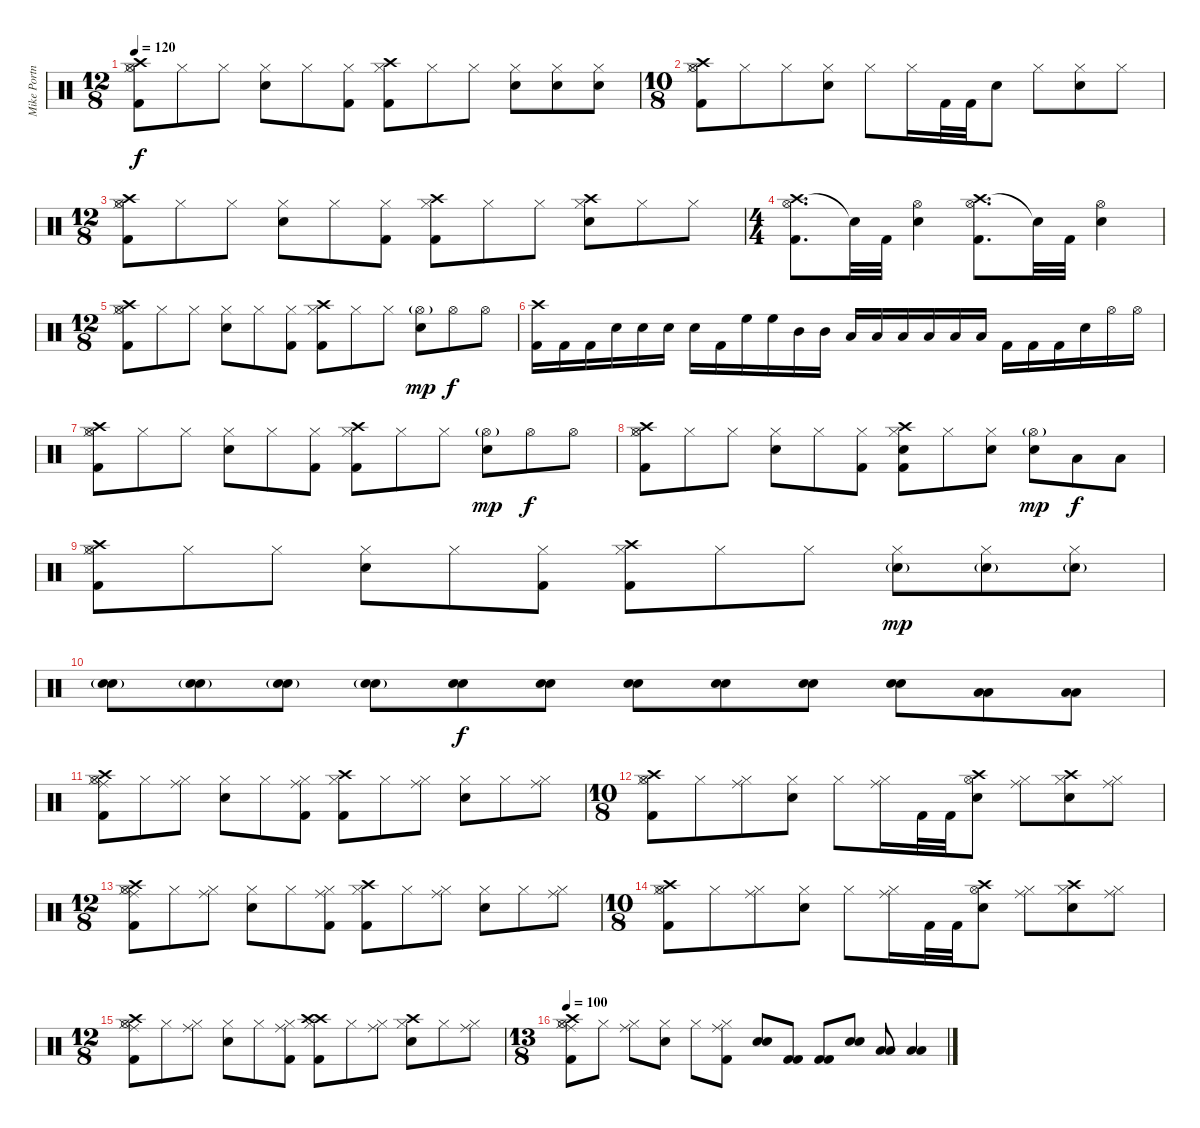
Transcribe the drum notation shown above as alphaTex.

\track ("Mike Portnoy Drums" "Mike Portn") {instrument percussion}
\staff {score}
\articulation defaults
\ts (12 8)
\tempo 120
\clef neutral
\ks c
("Hi-Hat (open)" "Kick (hit) 2" "Crash high (hit)" "Hi-Hat (closed)").8{dy f} "Hi-Hat (closed)".8 "Hi-Hat (closed)".8 ("Snare (hit) 2" "Hi-Hat (closed)").8 "Hi-Hat (closed)".8 ("Kick (hit) 2" "Hi-Hat (closed)").8 ("Kick (hit) 2" "Crash high (hit)" "Hi-Hat (closed)").8 "Hi-Hat (closed)".8 "Hi-Hat (closed)".8 ("Snare (hit) 2" "Hi-Hat (closed)").8 ("Snare (hit) 2" "Hi-Hat (closed)").8 ("Snare (hit) 2" "Hi-Hat (closed)").8 |
\ts (10 8)
("Crash high (hit)" "Hi-Hat (open)" "Kick (hit) 2" "Hi-Hat (closed)").8 "Hi-Hat (closed)".8 "Hi-Hat (closed)".8 ("Snare (hit) 2" "Hi-Hat (closed)").8 "Hi-Hat (closed)".8 "Hi-Hat (closed)".16 "Kick (hit) 2".32 "Kick (hit) 2".32 "Snare (hit) 2".8 "Hi-Hat (closed)".8 ("Snare (hit) 2" "Hi-Hat (closed)").8 "Hi-Hat (closed)".8 |
\ts (12 8)
("Hi-Hat (open)" "Kick (hit) 2" "Crash high (hit)" "Hi-Hat (closed)").8 "Hi-Hat (closed)".8 "Hi-Hat (closed)".8 ("Snare (hit) 2" "Hi-Hat (closed)").8 "Hi-Hat (closed)".8 ("Kick (hit) 2" "Hi-Hat (closed)").8 ("Kick (hit) 2" "Crash high (hit)" "Hi-Hat (closed)").8 "Hi-Hat (closed)".8 "Hi-Hat (closed)".8 ("Snare (hit) 2" "Crash high (hit)" "Hi-Hat (closed)").8 "Hi-Hat (closed)".8 "Hi-Hat (closed)".8 |
\ts (4 4)
("Crash high (hit)" "Hi-Hat (open)" "Kick (hit) 2").8{d} "Snare (hit)"{t}.32 "Kick (hit) 2".32 ("Hi-Hat (open)" "Snare (hit) 2").4 ("Crash high (hit)" "Hi-Hat (open)" "Kick (hit) 2").8{d} "Snare (hit)"{t}.32 "Kick (hit) 2".32 ("Hi-Hat (open)" "Snare (hit) 2").4 |
\ts (12 8)
("Hi-Hat (open)" "Kick (hit) 2" "Crash high (hit)" "Hi-Hat (closed)").8 "Hi-Hat (closed)".8 "Hi-Hat (closed)".8 ("Snare (hit) 2" "Hi-Hat (closed)").8 "Hi-Hat (closed)".8 ("Kick (hit) 2" "Hi-Hat (closed)").8 ("Crash high (hit)" "Kick (hit) 2" "Hi-Hat (closed)").8 "Hi-Hat (closed)".8 "Hi-Hat (closed)".8 ("Snare (hit) 2" "Hi-Hat (open)"{g}).8{dy mp} "Hi-Hat (open)".8{dy f} "Hi-Hat (open)".8 |
("Crash high (hit)" "Kick (hit) 2").16 "Kick (hit) 2".16 "Kick (hit) 2".16 "Snare (hit) 2".16 "Snare (hit) 2".16 "Snare (hit) 2".16 "Snare (hit) 2".16 "Kick (hit) 2".16 "High Floor Tom (hit)".16 "High Floor Tom (hit)".16 "Mid Tom (hit)".16 "Mid Tom (hit)".16 "Low Tom (hit)".16 "Low Tom (hit)".16 "Low Floor Tom (hit)".16 "Low Floor Tom (hit)".16 "Low Floor Tom (hit)".16 "Low Floor Tom (hit)".16 "Kick (hit) 2".16 "Kick (hit) 2".16 "Kick (hit) 2".16 "Snare (hit) 2".16 "Hi-Hat (open)".16 "Hi-Hat (open)".16 |
("Hi-Hat (open)" "Kick (hit) 2" "Crash high (hit)" "Hi-Hat (closed)").8 "Hi-Hat (closed)".8 "Hi-Hat (closed)".8 ("Snare (hit) 2" "Hi-Hat (closed)").8 "Hi-Hat (closed)".8 ("Kick (hit) 2" "Hi-Hat (closed)").8 ("Crash high (hit)" "Kick (hit) 2" "Hi-Hat (closed)").8 "Hi-Hat (closed)".8 "Hi-Hat (closed)".8 ("Snare (hit) 2" "Hi-Hat (open)"{g}).8{dy mp} "Hi-Hat (open)".8{dy f} "Hi-Hat (open)".8 |
("Hi-Hat (open)" "Kick (hit) 2" "Crash high (hit)" "Hi-Hat (closed)").8 "Hi-Hat (closed)".8 "Hi-Hat (closed)".8 ("Snare (hit) 2" "Hi-Hat (closed)").8 "Hi-Hat (closed)".8 ("Kick (hit) 2" "Hi-Hat (closed)").8 ("Crash high (hit)" "Kick (hit) 2" "Snare (hit) 2" "Hi-Hat (closed)").8 "Hi-Hat (closed)".8 ("Snare (hit) 2" "Hi-Hat (closed)").8 ("Snare (hit) 2" "Hi-Hat (open)"{g}).8{dy mp} "Low Tom (hit)".8{dy f} "Low Floor Tom (hit)".8 |
("Hi-Hat (open)" "Kick (hit) 2" "Crash high (hit)" "Hi-Hat (closed)").8 "Hi-Hat (closed)".8 "Hi-Hat (closed)".8 ("Snare (hit) 2" "Hi-Hat (closed)").8 "Hi-Hat (closed)".8 ("Kick (hit) 2" "Hi-Hat (closed)").8 ("Crash high (hit)" "Kick (hit) 2" "Hi-Hat (closed)").8 "Hi-Hat (closed)".8 "Hi-Hat (closed)".8 ("Snare (hit) 2"{g} "Hi-Hat (closed)").8{dy mp} ("Snare (hit) 2"{g} "Hi-Hat (closed)").8 ("Snare (hit) 2"{g} "Hi-Hat (closed)").8 |
("Snare (hit) 2"{g} "Snare (hit) 2"{g}).8 ("Snare (hit) 2"{g} "Snare (hit) 2"{g}).8 ("Snare (hit) 2"{g} "Snare (hit) 2"{g}).8 ("Snare (hit) 2"{g} "Snare (hit) 2"{g}).8 ("Snare (hit) 2" "Snare (hit) 2").8{dy f} ("Snare (hit) 2" "Snare (hit) 2").8 ("Snare (hit) 2" "Snare (hit) 2").8 ("Snare (hit) 2" "Snare (hit) 2").8 ("Snare (hit) 2" "Snare (hit) 2").8 ("Snare (hit) 2" "Snare (hit) 2").8 ("Low Tom (hit)" "Low Tom (hit)").8 ("Low Floor Tom (hit)" "Low Floor Tom (hit)").8 |
("Ride (middle)" "Hi-Hat (open)" "Kick (hit) 2" "Crash high (hit)" "Hi-Hat (closed)").8 "Hi-Hat (closed)".8 ("Ride (middle)" "Hi-Hat (closed)").8 ("Snare (hit) 2" "Hi-Hat (closed)").8 "Hi-Hat (closed)".8 ("Ride (middle)" "Kick (hit) 2" "Hi-Hat (closed)").8 ("Crash high (hit)" "Kick (hit) 2" "Hi-Hat (closed)").8 "Hi-Hat (closed)".8 ("Ride (middle)" "Hi-Hat (closed)").8 ("Snare (hit) 2" "Hi-Hat (closed)").8 "Hi-Hat (closed)".8 ("Ride (middle)" "Hi-Hat (closed)").8 |
\ts (10 8)
("Crash high (hit)" "Hi-Hat (open)" "Kick (hit) 2" "Hi-Hat (closed)").8 "Hi-Hat (closed)".8 ("Ride (middle)" "Hi-Hat (closed)").8 ("Snare (hit) 2" "Hi-Hat (closed)").8 "Hi-Hat (closed)".8 ("Ride (middle)" "Hi-Hat (closed)").16 "Kick (hit) 2".32 "Kick (hit) 2".32 ("Hi-Hat (open)" "Crash high (hit)" "Snare (hit) 2").8 ("Ride (middle)" "Hi-Hat (closed)").8 ("Crash high (hit)" "Snare (hit) 2" "Hi-Hat (closed)").8 ("Ride (middle)" "Hi-Hat (closed)").8 |
\ts (12 8)
("Ride (middle)" "Hi-Hat (open)" "Kick (hit) 2" "Crash high (hit)" "Hi-Hat (closed)").8 "Hi-Hat (closed)".8 ("Ride (middle)" "Hi-Hat (closed)").8 ("Snare (hit) 2" "Hi-Hat (closed)").8 "Hi-Hat (closed)".8 ("Ride (middle)" "Kick (hit) 2" "Hi-Hat (closed)").8 ("Crash high (hit)" "Kick (hit) 2" "Hi-Hat (closed)").8 "Hi-Hat (closed)".8 ("Ride (middle)" "Hi-Hat (closed)").8 ("Snare (hit) 2" "Hi-Hat (closed)").8 "Hi-Hat (closed)".8 ("Ride (middle)" "Hi-Hat (closed)").8 |
\ts (10 8)
("Crash high (hit)" "Hi-Hat (open)" "Kick (hit) 2" "Hi-Hat (closed)").8 "Hi-Hat (closed)".8 ("Ride (middle)" "Hi-Hat (closed)").8 ("Snare (hit) 2" "Hi-Hat (closed)").8 "Hi-Hat (closed)".8 ("Ride (middle)" "Hi-Hat (closed)").16 "Kick (hit) 2".32 "Kick (hit) 2".32 ("Hi-Hat (open)" "Crash high (hit)" "Snare (hit) 2").8 ("Ride (middle)" "Hi-Hat (closed)").8 ("Crash high (hit)" "Snare (hit) 2" "Hi-Hat (closed)").8 ("Ride (middle)" "Hi-Hat (closed)").8 |
\ts (12 8)
("Ride (middle)" "Hi-Hat (open)" "Kick (hit) 2" "Crash high (hit)" "Hi-Hat (closed)").8 "Hi-Hat (closed)".8 ("Ride (middle)" "Hi-Hat (closed)").8 ("Snare (hit) 2" "Hi-Hat (closed)").8 "Hi-Hat (closed)".8 ("Ride (middle)" "Kick (hit) 2" "Hi-Hat (closed)").8 ("Crash high (hit)" "Kick (hit) 2" "Crash high (hit)" "Hi-Hat (closed)").8 "Hi-Hat (closed)".8 ("Ride (middle)" "Hi-Hat (closed)").8 ("Snare (hit) 2" "Crash high (hit)" "Hi-Hat (closed)").8 "Hi-Hat (closed)".8 ("Ride (middle)" "Hi-Hat (closed)").8 |
\ts (13 8)
\tempo 100
("Ride (middle)" "Hi-Hat (open)" "Kick (hit) 2" "Crash high (hit)" "Hi-Hat (closed)").8 "Hi-Hat (closed)".8 ("Ride (middle)" "Hi-Hat (closed)").8 ("Snare (hit) 2" "Hi-Hat (closed)").8 "Hi-Hat (closed)".8 ("Ride (middle)" "Kick (hit) 2" "Hi-Hat (closed)").8 ("Snare (hit) 2" "Snare (hit) 2").8 ("Kick (hit) 2" "Kick (hit) 2").8 ("Kick (hit) 2" "Kick (hit) 2").8 ("Snare (hit) 2" "Snare (hit) 2").8 ("Low Tom (hit)" "Low Tom (hit)").8 ("Low Floor Tom (hit)" "Low Floor Tom (hit)").4
